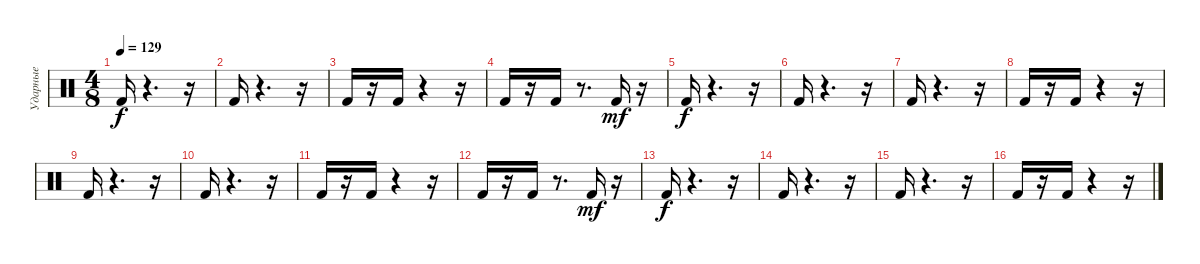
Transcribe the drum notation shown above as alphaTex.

\track ("Ударные" "Ударные") {instrument percussion}
\staff {score}
\articulation defaults
\ts (4 8)
\tempo 129
\clef neutral
\ks c "Kick (hit) 2".16{dy f}
r.4{d} r.16 |
"Kick (hit) 2".16 r.4{d} r.16 |
"Kick (hit) 2".16 r.16 "Kick (hit) 2".16 r.4 r.16 |
"Kick (hit) 2".16 r.16 "Kick (hit) 2".16 r.8{d} "Kick (hit) 2".16{dy mf} r.16 |
"Kick (hit) 2".16{dy f} r.4{d} r.16 |
"Kick (hit) 2".16 r.4{d} r.16 |
"Kick (hit) 2".16 r.4{d} r.16 |
"Kick (hit) 2".16 r.16 "Kick (hit) 2".16 r.4 r.16 |
"Kick (hit) 2".16 r.4{d} r.16 |
"Kick (hit) 2".16 r.4{d} r.16 |
"Kick (hit) 2".16 r.16 "Kick (hit) 2".16 r.4 r.16 |
"Kick (hit) 2".16 r.16 "Kick (hit) 2".16 r.8{d} "Kick (hit) 2".16{dy mf} r.16 |
"Kick (hit) 2".16{dy f} r.4{d} r.16 |
"Kick (hit) 2".16 r.4{d} r.16 |
"Kick (hit) 2".16 r.4{d} r.16 |
"Kick (hit) 2".16 r.16 "Kick (hit) 2".16 r.4 r.16
